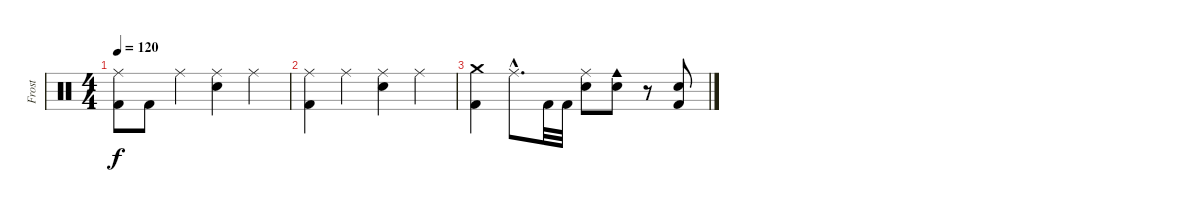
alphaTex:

\track ("Frost" "Frost") {instrument percussion}
\staff {score}
\articulation defaults
\ts (4 4)
\tempo 120
\clef neutral
\ks c
("Ride (middle)" "Kick (hit) 2").8{dy f} "Kick (hit) 2".8 "Ride (middle)".4 ("Ride (middle)" "Snare (hit) 2").4 "Ride (middle)".4 |
("Ride (middle)" "Kick (hit) 2").4 "Ride (middle)".4 ("Ride (middle)" "Snare (hit) 2").4 "Ride (middle)".4 |
("Crash medium (hit)" "Kick (hit) 2").4 "Ride (middle)"{hac}.8{d} "Kick (hit) 2".32 "Kick (hit) 2".32 ("Ride (middle)" "Snare (hit) 2").8 ("Cowbell medium (hit)" "Snare (hit) 2").8 r.8 ("Snare (hit) 2" "Kick (hit) 2").8
